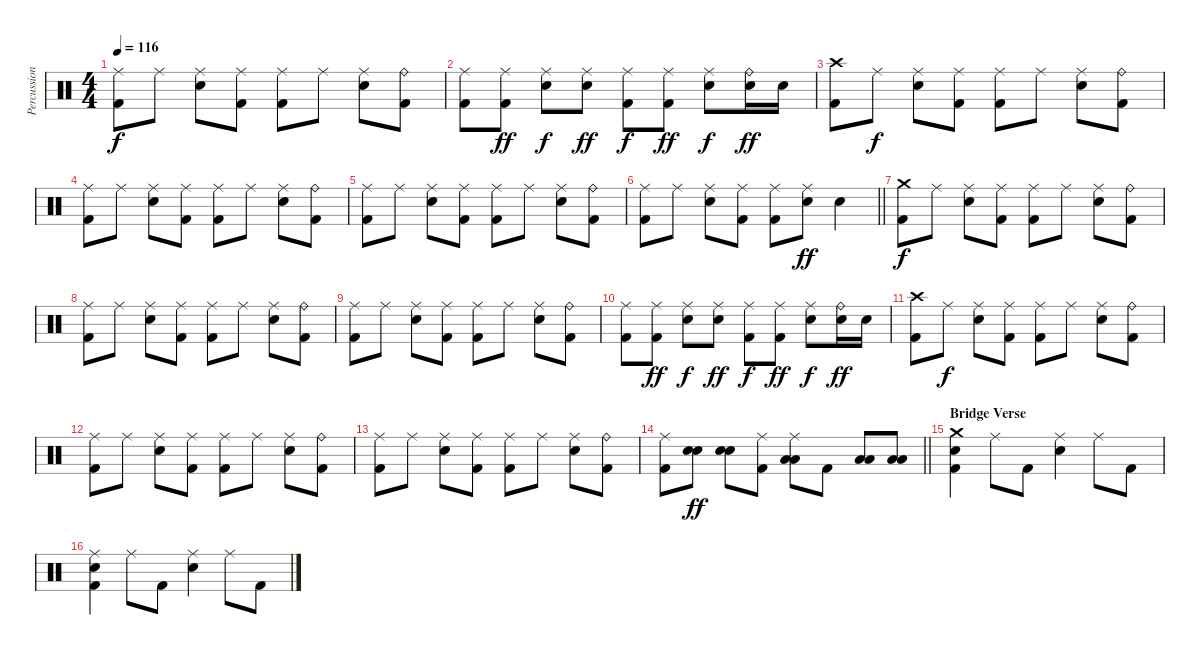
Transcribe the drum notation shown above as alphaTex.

\track ("Percussion" "Percussion") {instrument percussion}
\staff {score}
\articulation defaults
\ts (4 4)
\tempo 116
\clef neutral
\ks c
("Ride (middle)" "Kick (hit) 2").8{dy f} "Ride (middle)".8 ("Ride (middle)" "Snare (hit) 2").8 ("Ride (middle)" "Kick (hit) 2").8 ("Ride (middle)" "Kick (hit) 2").8 "Ride (middle)".8 ("Ride (middle)" "Snare (hit) 2").8 ("Ride (bell)" "Kick (hit) 2").8 |
("Ride (middle)" "Kick (hit) 2").8 ("Ride (middle)" "Kick (hit) 2").8{dy ff} ("Ride (middle)" "Snare (hit) 2").8{dy f} ("Ride (middle)" "Snare (hit) 2").8{dy ff} ("Ride (middle)" "Kick (hit) 2").8{dy f} ("Ride (middle)" "Kick (hit) 2").8{dy ff} ("Ride (middle)" "Snare (hit) 2").8{dy f} ("Ride (bell)" "Snare (hit) 2").16{dy ff} "Snare (hit) 2".16 |
("Crash high (hit)" "Kick (hit) 2").8 "Ride (middle)".8{dy f} ("Ride (middle)" "Snare (hit) 2").8 ("Ride (middle)" "Kick (hit) 2").8 ("Ride (middle)" "Kick (hit) 2").8 "Ride (middle)".8 ("Ride (middle)" "Snare (hit) 2").8 ("Ride (bell)" "Kick (hit) 2").8 |
("Ride (middle)" "Kick (hit) 2").8 "Ride (middle)".8 ("Ride (middle)" "Snare (hit) 2").8 ("Ride (middle)" "Kick (hit) 2").8 ("Ride (middle)" "Kick (hit) 2").8 "Ride (middle)".8 ("Ride (middle)" "Snare (hit) 2").8 ("Ride (bell)" "Kick (hit) 2").8 |
("Ride (middle)" "Kick (hit) 2").8 "Ride (middle)".8 ("Ride (middle)" "Snare (hit) 2").8 ("Ride (middle)" "Kick (hit) 2").8 ("Ride (middle)" "Kick (hit) 2").8 "Ride (middle)".8 ("Ride (middle)" "Snare (hit) 2").8 ("Ride (bell)" "Kick (hit) 2").8 |
\barLineRight lightlight
("Ride (middle)" "Kick (hit) 2").8 "Ride (middle)".8 ("Ride (middle)" "Snare (hit) 2").8 ("Ride (middle)" "Kick (hit) 2").8 ("Ride (middle)" "Kick (hit) 2").8 ("Ride (middle)" "Snare (hit) 2").8{dy ff} "Snare (hit) 2".4 |
("Crash medium (hit)" "Kick (hit) 2").8{dy f} "Ride (middle)".8 ("Ride (middle)" "Snare (hit) 2").8 ("Ride (middle)" "Kick (hit) 2").8 ("Ride (middle)" "Kick (hit) 2").8 "Ride (middle)".8 ("Ride (middle)" "Snare (hit) 2").8 ("Ride (bell)" "Kick (hit) 2").8 |
("Ride (middle)" "Kick (hit) 2").8 "Ride (middle)".8 ("Ride (middle)" "Snare (hit) 2").8 ("Ride (middle)" "Kick (hit) 2").8 ("Ride (middle)" "Kick (hit) 2").8 "Ride (middle)".8 ("Ride (middle)" "Snare (hit) 2").8 ("Ride (bell)" "Kick (hit) 2").8 |
("Ride (middle)" "Kick (hit) 2").8 "Ride (middle)".8 ("Ride (middle)" "Snare (hit) 2").8 ("Ride (middle)" "Kick (hit) 2").8 ("Ride (middle)" "Kick (hit) 2").8 "Ride (middle)".8 ("Ride (middle)" "Snare (hit) 2").8 ("Ride (bell)" "Kick (hit) 2").8 |
("Ride (middle)" "Kick (hit) 2").8 ("Ride (middle)" "Kick (hit) 2").8{dy ff} ("Ride (middle)" "Snare (hit) 2").8{dy f} ("Ride (middle)" "Snare (hit) 2").8{dy ff} ("Ride (middle)" "Kick (hit) 2").8{dy f} ("Ride (middle)" "Kick (hit) 2").8{dy ff} ("Ride (middle)" "Snare (hit) 2").8{dy f} ("Ride (bell)" "Snare (hit) 2").16{dy ff} "Snare (hit) 2".16 |
("Crash high (hit)" "Kick (hit) 2").8 "Ride (middle)".8{dy f} ("Ride (middle)" "Snare (hit) 2").8 ("Ride (middle)" "Kick (hit) 2").8 ("Ride (middle)" "Kick (hit) 2").8 "Ride (middle)".8 ("Ride (middle)" "Snare (hit) 2").8 ("Ride (bell)" "Kick (hit) 2").8 |
("Ride (middle)" "Kick (hit) 2").8 "Ride (middle)".8 ("Ride (middle)" "Snare (hit) 2").8 ("Ride (middle)" "Kick (hit) 2").8 ("Ride (middle)" "Kick (hit) 2").8 "Ride (middle)".8 ("Ride (middle)" "Snare (hit) 2").8 ("Ride (bell)" "Kick (hit) 2").8 |
("Ride (middle)" "Kick (hit) 2").8 "Ride (middle)".8 ("Ride (middle)" "Snare (hit) 2").8 ("Ride (middle)" "Kick (hit) 2").8 ("Ride (middle)" "Kick (hit) 2").8 "Ride (middle)".8 ("Ride (middle)" "Snare (hit) 2").8 ("Ride (bell)" "Kick (hit) 2").8 |
\barLineRight lightlight
("Ride (middle)" "Kick (hit) 2").8 ("Snare (hit) 2" "Snare (hit) 2").8{dy ff} ("Snare (hit) 2" "Snare (hit) 2").8 ("Ride (middle)" "Kick (hit) 2").8 ("Ride (middle)" "Low Tom (hit)" "Low Tom (hit)").8 "Kick (hit) 2".8 ("Low Floor Tom (hit)" "Low Floor Tom (hit)").8 ("Low Floor Tom (hit)" "Low Floor Tom (hit)").8 |
\section ("" "Bridge Verse")
("Crash medium (hit)" "Snare (hit) 2" "Kick (hit) 2").4 "Ride (middle)".8 "Kick (hit) 2".8 ("Ride (middle)" "Snare (hit) 2").4 "Ride (middle)".8 "Kick (hit) 2".8 |
("Ride (middle)" "Snare (hit) 2" "Kick (hit) 2").4 "Ride (middle)".8 "Kick (hit) 2".8 ("Ride (middle)" "Snare (hit) 2").4 "Ride (middle)".8 "Kick (hit) 2".8
